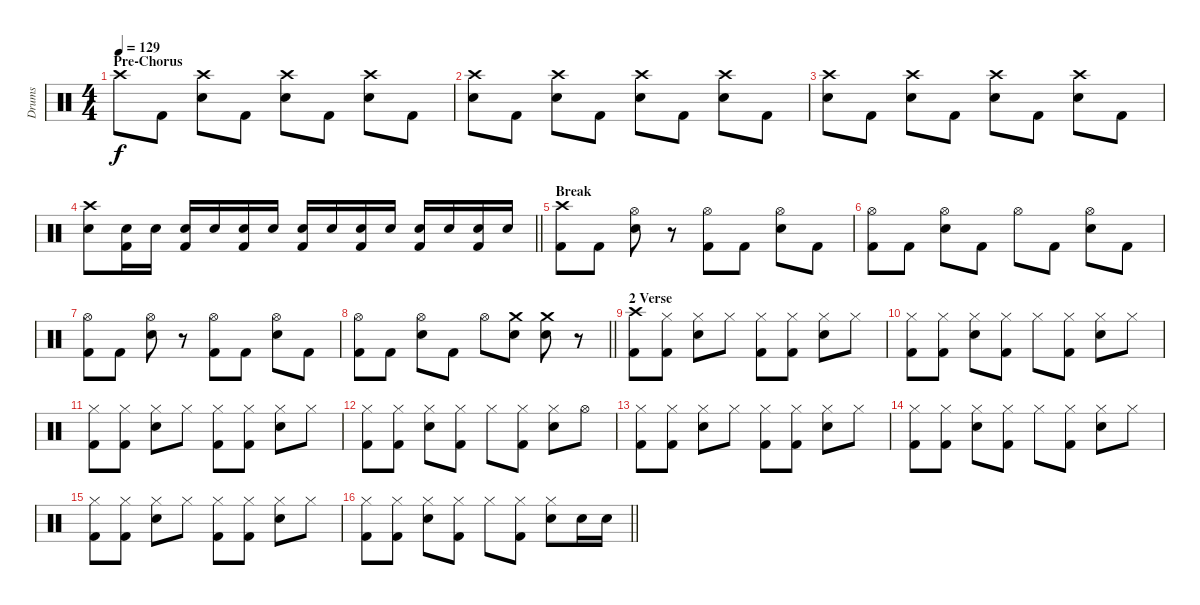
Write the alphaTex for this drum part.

\track ("Drums" "Drums") {instrument percussion}
\staff {score}
\articulation defaults
\ts (4 4)
\section ("" "Pre-Chorus")
\tempo 129
\clef neutral
\ks c "Crash high (hit)".8{dy f} "Kick (hit) 2".8
("Crash high (hit)" "Electric Snare (hit)").8 "Kick (hit) 2".8 ("Crash high (hit)" "Electric Snare (hit)").8 "Kick (hit) 2".8 ("Crash high (hit)" "Electric Snare (hit)").8 "Kick (hit) 2".8 |
("Crash high (hit)" "Electric Snare (hit)").8 "Kick (hit) 2".8 ("Crash high (hit)" "Electric Snare (hit)").8 "Kick (hit) 2".8 ("Crash high (hit)" "Electric Snare (hit)").8 "Kick (hit) 2".8 ("Crash high (hit)" "Electric Snare (hit)").8 "Kick (hit) 2".8 |
("Crash high (hit)" "Electric Snare (hit)").8 "Kick (hit) 2".8 ("Crash high (hit)" "Electric Snare (hit)").8 "Kick (hit) 2".8 ("Crash high (hit)" "Electric Snare (hit)").8 "Kick (hit) 2".8 ("Crash high (hit)" "Electric Snare (hit)").8 "Kick (hit) 2".8 |
\barLineRight lightlight
("Crash high (hit)" "Electric Snare (hit)").8 ("Electric Snare (hit)" "Kick (hit) 2").16 "Electric Snare (hit)".16 ("Electric Snare (hit)" "Kick (hit) 2").16 "Electric Snare (hit)".16 ("Electric Snare (hit)" "Kick (hit) 2").16 "Electric Snare (hit)".16 ("Electric Snare (hit)" "Kick (hit) 2").16 "Electric Snare (hit)".16 ("Electric Snare (hit)" "Kick (hit) 2").16 "Electric Snare (hit)".16 ("Electric Snare (hit)" "Kick (hit) 2").16 "Electric Snare (hit)".16 ("Electric Snare (hit)" "Kick (hit) 2").16 "Electric Snare (hit)".16 |
\section ("" "Break")
("Crash high (hit)" "Kick (hit) 2").8 "Kick (hit) 2".8 ("Hi-Hat (open)" "Electric Snare (hit)").8 r.8 ("Hi-Hat (open)" "Kick (hit) 2").8 "Kick (hit) 2".8 ("Hi-Hat (open)" "Electric Snare (hit)").8 "Kick (hit) 2".8 |
("Hi-Hat (open)" "Kick (hit) 2").8 "Kick (hit) 2".8 ("Hi-Hat (open)" "Electric Snare (hit)").8 "Kick (hit) 2".8 "Hi-Hat (open)".8 "Kick (hit) 2".8 ("Hi-Hat (open)" "Electric Snare (hit)").8 "Kick (hit) 2".8 |
("Hi-Hat (open)" "Kick (hit) 2").8 "Kick (hit) 2".8 ("Hi-Hat (open)" "Electric Snare (hit)").8 r.8 ("Hi-Hat (open)" "Kick (hit) 2").8 "Kick (hit) 2".8 ("Hi-Hat (open)" "Electric Snare (hit)").8 "Kick (hit) 2".8 |
\barLineRight lightlight
("Hi-Hat (open)" "Kick (hit) 2").8 "Kick (hit) 2".8 ("Hi-Hat (open)" "Electric Snare (hit)").8 "Kick (hit) 2".8 "Hi-Hat (open)".8 ("Crash medium (hit)" "Electric Snare (hit)").8 ("Crash medium (hit)" "Electric Snare (hit)").8 r.8 |
\section ("" "2 Verse")
("Crash high (hit)" "Kick (hit) 2").8 ("Hi-Hat (closed)" "Kick (hit) 2").8 ("Hi-Hat (closed)" "Electric Snare (hit)").8 "Hi-Hat (closed)".8 ("Hi-Hat (closed)" "Kick (hit) 2").8 ("Hi-Hat (closed)" "Kick (hit) 2").8 ("Hi-Hat (closed)" "Electric Snare (hit)").8 "Hi-Hat (closed)".8 |
("Hi-Hat (closed)" "Kick (hit) 2").8 ("Hi-Hat (closed)" "Kick (hit) 2").8 ("Hi-Hat (closed)" "Electric Snare (hit)").8 ("Hi-Hat (closed)" "Kick (hit) 2").8 "Hi-Hat (closed)".8 ("Hi-Hat (closed)" "Kick (hit) 2").8 ("Hi-Hat (closed)" "Electric Snare (hit)").8 "Hi-Hat (closed)".8 |
("Hi-Hat (closed)" "Kick (hit) 2").8 ("Hi-Hat (closed)" "Kick (hit) 2").8 ("Hi-Hat (closed)" "Electric Snare (hit)").8 "Hi-Hat (closed)".8 ("Hi-Hat (closed)" "Kick (hit) 2").8 ("Hi-Hat (closed)" "Kick (hit) 2").8 ("Hi-Hat (closed)" "Electric Snare (hit)").8 "Hi-Hat (closed)".8 |
("Hi-Hat (closed)" "Kick (hit) 2").8 ("Hi-Hat (closed)" "Kick (hit) 2").8 ("Hi-Hat (closed)" "Electric Snare (hit)").8 ("Hi-Hat (closed)" "Kick (hit) 2").8 "Hi-Hat (closed)".8 ("Hi-Hat (closed)" "Kick (hit) 2").8 ("Hi-Hat (closed)" "Electric Snare (hit)").8 "Hi-Hat (open)".8 |
("Hi-Hat (closed)" "Kick (hit) 2").8 ("Hi-Hat (closed)" "Kick (hit) 2").8 ("Hi-Hat (closed)" "Electric Snare (hit)").8 "Hi-Hat (closed)".8 ("Hi-Hat (closed)" "Kick (hit) 2").8 ("Hi-Hat (closed)" "Kick (hit) 2").8 ("Hi-Hat (closed)" "Electric Snare (hit)").8 "Hi-Hat (closed)".8 |
("Hi-Hat (closed)" "Kick (hit) 2").8 ("Hi-Hat (closed)" "Kick (hit) 2").8 ("Hi-Hat (closed)" "Electric Snare (hit)").8 ("Hi-Hat (closed)" "Kick (hit) 2").8 "Hi-Hat (closed)".8 ("Hi-Hat (closed)" "Kick (hit) 2").8 ("Hi-Hat (closed)" "Electric Snare (hit)").8 "Hi-Hat (closed)".8 |
("Hi-Hat (closed)" "Kick (hit) 2").8 ("Hi-Hat (closed)" "Kick (hit) 2").8 ("Hi-Hat (closed)" "Electric Snare (hit)").8 "Hi-Hat (closed)".8 ("Hi-Hat (closed)" "Kick (hit) 2").8 ("Hi-Hat (closed)" "Kick (hit) 2").8 ("Hi-Hat (closed)" "Electric Snare (hit)").8 "Hi-Hat (closed)".8 |
\barLineRight lightlight
("Hi-Hat (closed)" "Kick (hit) 2").8 ("Hi-Hat (closed)" "Kick (hit) 2").8 ("Hi-Hat (closed)" "Electric Snare (hit)").8 ("Hi-Hat (closed)" "Kick (hit) 2").8 "Hi-Hat (closed)".8 ("Hi-Hat (closed)" "Kick (hit) 2").8 ("Hi-Hat (closed)" "Electric Snare (hit)").8 "Electric Snare (hit)".16 "Electric Snare (hit)".16
